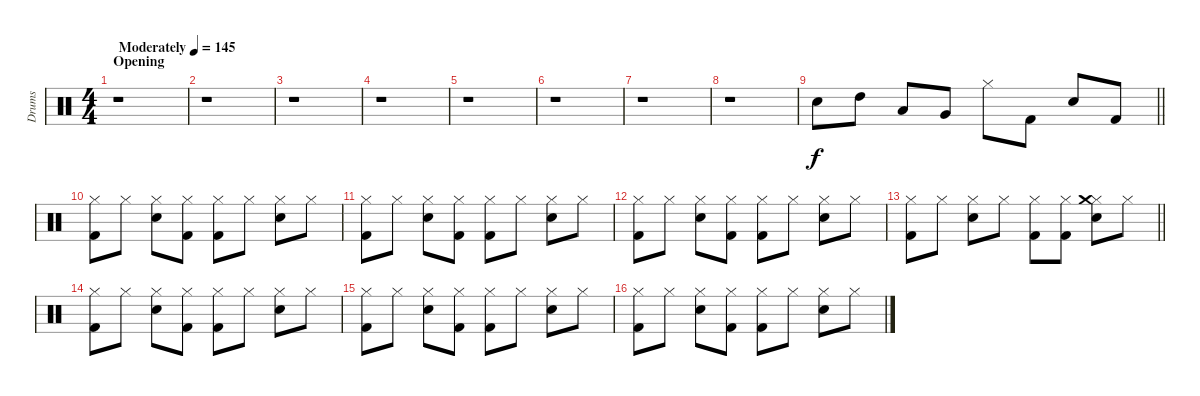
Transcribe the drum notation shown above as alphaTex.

\track ("Drums" "Drums") {instrument percussion}
\staff {score}
\articulation defaults
\ts (4 4)
\section ("" "Opening")
\tempo (145 "Moderately")
\clef neutral
\ks c
r.1{dy f} |
r.1 |
r.1 |
r.1 |
r.1 |
r.1 |
r.1 |
r.1 |
\barLineRight lightlight "Snare (hit) 2".8 "High Tom (hit)".8 "Low Tom (hit)".8 "Very Low Tom (hit)".8 "Hi-Hat (closed)".8 "Kick (hit) 2".8 "Snare (hit) 2".8 "Kick (hit) 2".8
|
("Kick (hit) 2" "Hi-Hat (closed)").8 "Hi-Hat (closed)".8 ("Snare (hit) 2" "Hi-Hat (closed)").8 ("Kick (hit) 2" "Hi-Hat (closed)").8 ("Kick (hit) 2" "Hi-Hat (closed)").8 "Hi-Hat (closed)".8 ("Snare (hit) 2" "Hi-Hat (closed)").8 "Hi-Hat (closed)".8 |
("Kick (hit) 2" "Hi-Hat (closed)").8 "Hi-Hat (closed)".8 ("Snare (hit) 2" "Hi-Hat (closed)").8 ("Kick (hit) 2" "Hi-Hat (closed)").8 ("Kick (hit) 2" "Hi-Hat (closed)").8 "Hi-Hat (closed)".8 ("Snare (hit) 2" "Hi-Hat (closed)").8 "Hi-Hat (closed)".8 |
("Kick (hit) 2" "Hi-Hat (closed)").8 "Hi-Hat (closed)".8 ("Snare (hit) 2" "Hi-Hat (closed)").8 ("Kick (hit) 2" "Hi-Hat (closed)").8 ("Kick (hit) 2" "Hi-Hat (closed)").8 "Hi-Hat (closed)".8 ("Snare (hit) 2" "Hi-Hat (closed)").8 "Hi-Hat (closed)".8 |
\barLineRight lightlight
("Kick (hit) 2" "Hi-Hat (closed)").8 "Hi-Hat (closed)".8 ("Snare (hit) 2" "Hi-Hat (closed)").8 "Hi-Hat (closed)".8 ("Kick (hit) 2" "Hi-Hat (closed)").8 ("Kick (hit) 2" "Hi-Hat (closed)").8 ("Snare (hit) 2" "Hi-Hat (closed)" "Crash medium (hit)").8 "Hi-Hat (closed)".8 |
("Kick (hit) 2" "Hi-Hat (closed)").8 "Hi-Hat (closed)".8 ("Snare (hit) 2" "Hi-Hat (closed)").8 ("Kick (hit) 2" "Hi-Hat (closed)").8 ("Kick (hit) 2" "Hi-Hat (closed)").8 "Hi-Hat (closed)".8 ("Snare (hit) 2" "Hi-Hat (closed)").8 "Hi-Hat (closed)".8 |
("Kick (hit) 2" "Hi-Hat (closed)").8 "Hi-Hat (closed)".8 ("Snare (hit) 2" "Hi-Hat (closed)").8 ("Kick (hit) 2" "Hi-Hat (closed)").8 ("Kick (hit) 2" "Hi-Hat (closed)").8 "Hi-Hat (closed)".8 ("Snare (hit) 2" "Hi-Hat (closed)").8 "Hi-Hat (closed)".8 |
("Kick (hit) 2" "Hi-Hat (closed)").8 "Hi-Hat (closed)".8 ("Snare (hit) 2" "Hi-Hat (closed)").8 ("Kick (hit) 2" "Hi-Hat (closed)").8 ("Kick (hit) 2" "Hi-Hat (closed)").8 "Hi-Hat (closed)".8 ("Snare (hit) 2" "Hi-Hat (closed)").8 "Hi-Hat (closed)".8
